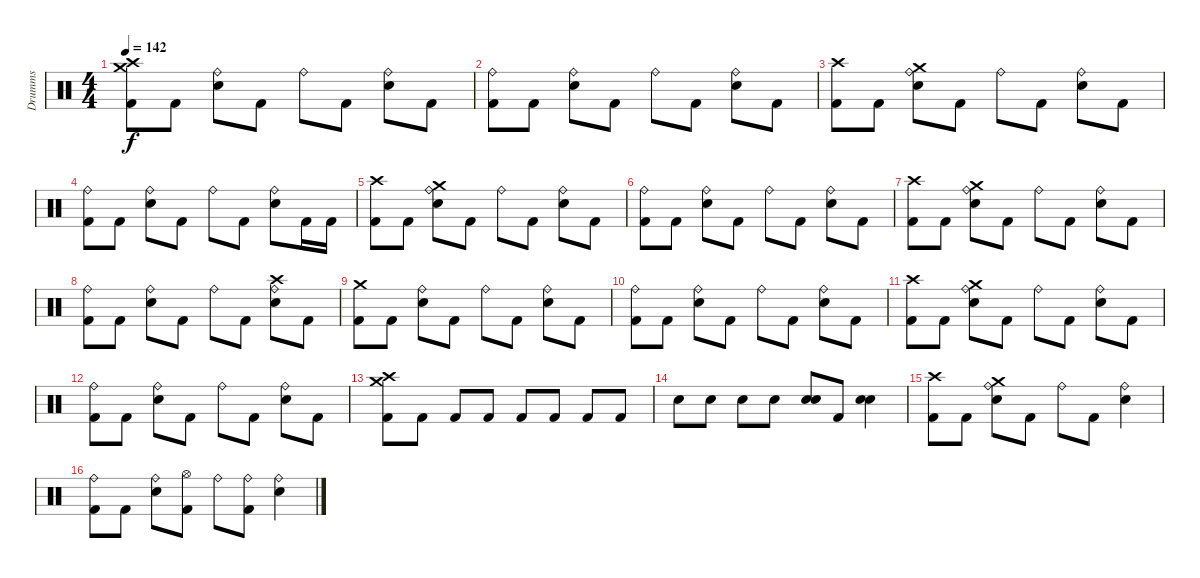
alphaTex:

\track ("Drumms" "Drumms") {instrument percussion}
\staff {score}
\articulation defaults
\ts (4 4)
\tempo 142
\clef neutral
\ks c
("Kick (hit) 2" "Crash high (hit)" "Crash medium (hit)").8{dy f} "Kick (hit) 2".8 ("Electric Snare (hit)" "Ride (bell)").8 "Kick (hit) 2".8 "Ride (bell)".8 "Kick (hit) 2".8 ("Electric Snare (hit)" "Ride (bell)").8 "Kick (hit) 2".8 |
("Kick (hit) 2" "Ride (bell)").8 "Kick (hit) 2".8 ("Electric Snare (hit)" "Ride (bell)").8 "Kick (hit) 2".8 "Ride (bell)".8 "Kick (hit) 2".8 ("Electric Snare (hit)" "Ride (bell)").8 "Kick (hit) 2".8 |
("Kick (hit) 2" "Crash high (hit)").8 "Kick (hit) 2".8 ("Electric Snare (hit)" "Crash medium (hit)" "Ride (bell)").8 "Kick (hit) 2".8 "Ride (bell)".8 "Kick (hit) 2".8 ("Electric Snare (hit)" "Ride (bell)").8 "Kick (hit) 2".8 |
("Kick (hit) 2" "Ride (bell)").8 "Kick (hit) 2".8 ("Electric Snare (hit)" "Ride (bell)").8 "Kick (hit) 2".8 "Ride (bell)".8 "Kick (hit) 2".8 ("Electric Snare (hit)" "Ride (bell)").8 "Kick (hit) 2".16 "Kick (hit) 2".16 |
("Kick (hit) 2" "Crash high (hit)").8 "Kick (hit) 2".8 ("Electric Snare (hit)" "Crash medium (hit)" "Ride (bell)").8 "Kick (hit) 2".8 "Ride (bell)".8 "Kick (hit) 2".8 ("Electric Snare (hit)" "Ride (bell)").8 "Kick (hit) 2".8 |
("Kick (hit) 2" "Ride (bell)").8 "Kick (hit) 2".8 ("Electric Snare (hit)" "Ride (bell)").8 "Kick (hit) 2".8 "Ride (bell)".8 "Kick (hit) 2".8 ("Electric Snare (hit)" "Ride (bell)").8 "Kick (hit) 2".8 |
("Kick (hit) 2" "Crash high (hit)").8 "Kick (hit) 2".8 ("Electric Snare (hit)" "Crash medium (hit)" "Ride (bell)").8 "Kick (hit) 2".8 "Ride (bell)".8 "Kick (hit) 2".8 ("Electric Snare (hit)" "Ride (bell)").8 "Kick (hit) 2".8 |
("Kick (hit) 2" "Ride (bell)").8 "Kick (hit) 2".8 ("Electric Snare (hit)" "Ride (bell)").8 "Kick (hit) 2".8 "Ride (bell)".8 "Kick (hit) 2".8 ("Electric Snare (hit)" "Ride (bell)" "Crash high (hit)").8 "Kick (hit) 2".8 |
("Kick (hit) 2" "Crash medium (hit)").8 "Kick (hit) 2".8 ("Electric Snare (hit)" "Ride (bell)").8 "Kick (hit) 2".8 "Ride (bell)".8 "Kick (hit) 2".8 ("Electric Snare (hit)" "Ride (bell)").8 "Kick (hit) 2".8 |
("Kick (hit) 2" "Ride (bell)").8 "Kick (hit) 2".8 ("Electric Snare (hit)" "Ride (bell)").8 "Kick (hit) 2".8 "Ride (bell)".8 "Kick (hit) 2".8 ("Electric Snare (hit)" "Ride (bell)").8 "Kick (hit) 2".8 |
("Kick (hit) 2" "Crash high (hit)").8 "Kick (hit) 2".8 ("Electric Snare (hit)" "Crash medium (hit)" "Ride (bell)").8 "Kick (hit) 2".8 "Ride (bell)".8 "Kick (hit) 2".8 ("Electric Snare (hit)" "Ride (bell)").8 "Kick (hit) 2".8 |
("Kick (hit) 2" "Ride (bell)").8 "Kick (hit) 2".8 ("Electric Snare (hit)" "Ride (bell)").8 "Kick (hit) 2".8 "Ride (bell)".8 "Kick (hit) 2".8 ("Electric Snare (hit)" "Ride (bell)").8 "Kick (hit) 2".8 |
("Kick (hit) 2" "Crash high (hit)" "Crash medium (hit)").8 "Kick (hit) 2".8 "Kick (hit) 2".8 "Kick (hit) 2".8 "Kick (hit) 2".8 "Kick (hit) 2".8 "Kick (hit) 2".8 "Kick (hit) 2".8 |
"Electric Snare (hit)".8 "Electric Snare (hit)".8 "Electric Snare (hit)".8 "Electric Snare (hit)".8 ("Snare (hit) 2" "Electric Snare (hit)").8 "Kick (hit) 2".8 ("Electric Snare (hit)" "Snare (hit) 2").4 |
\section ("" "")
("Kick (hit) 2" "Crash high (hit)").8 "Kick (hit) 2".8 ("Electric Snare (hit)" "Crash medium (hit)" "Ride (bell)").8 "Kick (hit) 2".8 "Ride (bell)".8 "Kick (hit) 2".8 ("Electric Snare (hit)" "Ride (bell)").4 |
("Ride (bell)" "Kick (hit) 2").8 "Kick (hit) 2".8 ("Ride (bell)" "Electric Snare (hit)").8 ("Hi-Hat (open)" "Kick (hit) 2").8 "Ride (bell)".8 ("Ride (bell)" "Kick (hit) 2").8 ("Ride (bell)" "Electric Snare (hit)").4
